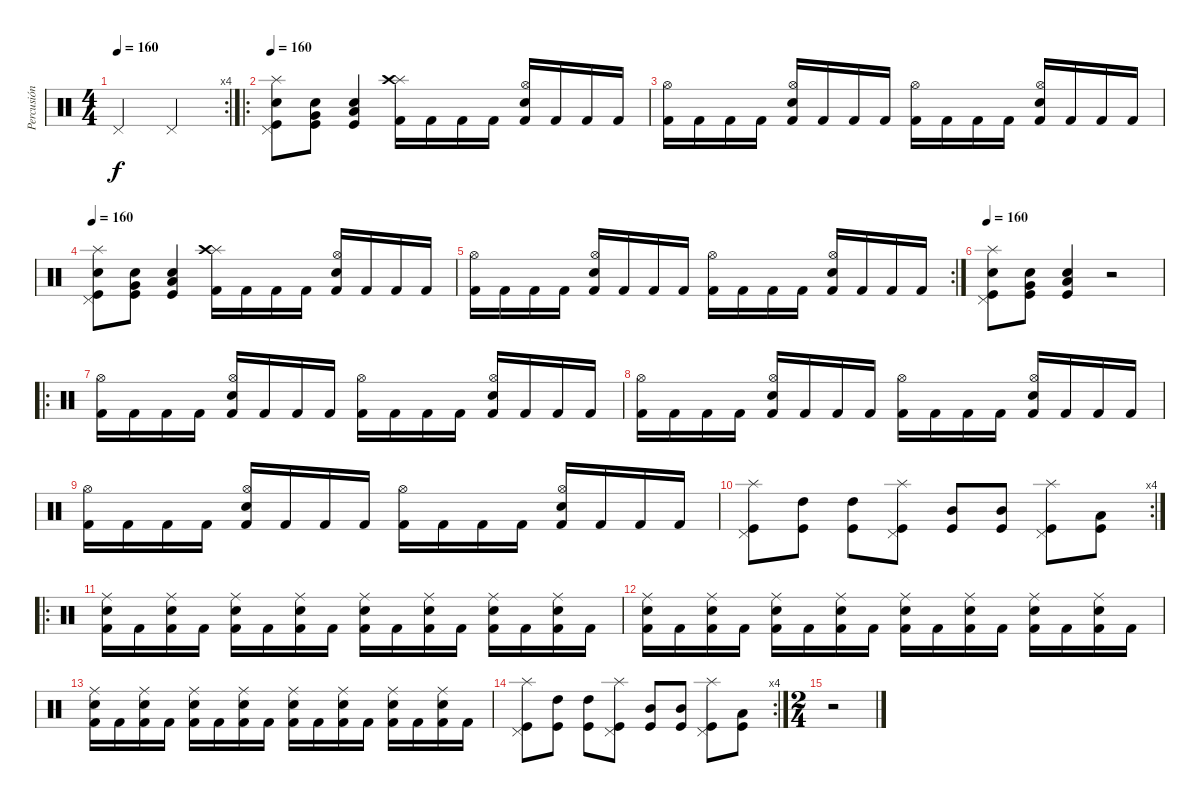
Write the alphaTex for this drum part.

\track ("Percusión" "Percusión") {instrument percussion}
\staff {score}
\articulation defaults
\rc 4
\ts (4 4)
\tempo 160
\clef neutral
\ks c "Pedal Hi-Hat (hit)".2{dy f} "Pedal Hi-Hat (hit)".2
|
\ro
\tempo 160
("Kick (hit)" "Pedal Hi-Hat (hit)" "Snare (hit) 2" "Splash (hit)").8 ("Kick (hit)" "Snare (hit) 2" "Very Low Tom (hit)").8 ("Kick (hit)" "Snare (hit) 2" "Low Tom (hit)").4 ("Splash (hit)" "Crash high (hit)" "Kick (hit) 2").16 "Kick (hit) 2".16 "Kick (hit) 2".16 "Kick (hit) 2".16 ("Hi-Hat (open)" "Electric Snare (hit)" "Kick (hit) 2").16 "Kick (hit) 2".16 "Kick (hit) 2".16 "Kick (hit) 2".16 |
("Hi-Hat (open)" "Kick (hit) 2").16 "Kick (hit) 2".16 "Kick (hit) 2".16 "Kick (hit) 2".16 ("Hi-Hat (open)" "Electric Snare (hit)" "Kick (hit) 2").16 "Kick (hit) 2".16 "Kick (hit) 2".16 "Kick (hit) 2".16 ("Hi-Hat (open)" "Kick (hit) 2").16 "Kick (hit) 2".16 "Kick (hit) 2".16 "Kick (hit) 2".16 ("Hi-Hat (open)" "Electric Snare (hit)" "Kick (hit) 2").16 "Kick (hit) 2".16 "Kick (hit) 2".16 "Kick (hit) 2".16 |
\tempo 160
("Kick (hit)" "Pedal Hi-Hat (hit)" "Snare (hit) 2" "Splash (hit)").8 ("Kick (hit)" "Snare (hit) 2" "Very Low Tom (hit)").8 ("Kick (hit)" "Snare (hit) 2" "Low Tom (hit)").4 ("Splash (hit)" "Crash high (hit)" "Kick (hit) 2").16 "Kick (hit) 2".16 "Kick (hit) 2".16 "Kick (hit) 2".16 ("Hi-Hat (open)" "Electric Snare (hit)" "Kick (hit) 2").16 "Kick (hit) 2".16 "Kick (hit) 2".16 "Kick (hit) 2".16 |
\rc 2
("Hi-Hat (open)" "Kick (hit) 2").16 "Kick (hit) 2".16 "Kick (hit) 2".16 "Kick (hit) 2".16 ("Hi-Hat (open)" "Electric Snare (hit)" "Kick (hit) 2").16 "Kick (hit) 2".16 "Kick (hit) 2".16 "Kick (hit) 2".16 ("Hi-Hat (open)" "Kick (hit) 2").16 "Kick (hit) 2".16 "Kick (hit) 2".16 "Kick (hit) 2".16 ("Hi-Hat (open)" "Electric Snare (hit)" "Kick (hit) 2").16 "Kick (hit) 2".16 "Kick (hit) 2".16 "Kick (hit) 2".16 |
\tempo 160
("Kick (hit)" "Pedal Hi-Hat (hit)" "Snare (hit) 2" "Splash (hit)").8 ("Kick (hit)" "Snare (hit) 2" "Very Low Tom (hit)").8 ("Kick (hit)" "Snare (hit) 2" "Low Tom (hit)").4 r.2 |
\ro
("Hi-Hat (open)" "Kick (hit) 2").16 "Kick (hit) 2".16 "Kick (hit) 2".16 "Kick (hit) 2".16 ("Hi-Hat (open)" "Electric Snare (hit)" "Kick (hit) 2").16 "Kick (hit) 2".16 "Kick (hit) 2".16 "Kick (hit) 2".16 ("Hi-Hat (open)" "Kick (hit) 2").16 "Kick (hit) 2".16 "Kick (hit) 2".16 "Kick (hit) 2".16 ("Hi-Hat (open)" "Electric Snare (hit)" "Kick (hit) 2").16 "Kick (hit) 2".16 "Kick (hit) 2".16 "Kick (hit) 2".16 |
("Hi-Hat (open)" "Kick (hit) 2").16 "Kick (hit) 2".16 "Kick (hit) 2".16 "Kick (hit) 2".16 ("Hi-Hat (open)" "Electric Snare (hit)" "Kick (hit) 2").16 "Kick (hit) 2".16 "Kick (hit) 2".16 "Kick (hit) 2".16 ("Hi-Hat (open)" "Kick (hit) 2").16 "Kick (hit) 2".16 "Kick (hit) 2".16 "Kick (hit) 2".16 ("Hi-Hat (open)" "Electric Snare (hit)" "Kick (hit) 2").16 "Kick (hit) 2".16 "Kick (hit) 2".16 "Kick (hit) 2".16 |
("Hi-Hat (open)" "Kick (hit) 2").16 "Kick (hit) 2".16 "Kick (hit) 2".16 "Kick (hit) 2".16 ("Hi-Hat (open)" "Electric Snare (hit)" "Kick (hit) 2").16 "Kick (hit) 2".16 "Kick (hit) 2".16 "Kick (hit) 2".16 ("Hi-Hat (open)" "Kick (hit) 2").16 "Kick (hit) 2".16 "Kick (hit) 2".16 "Kick (hit) 2".16 ("Hi-Hat (open)" "Electric Snare (hit)" "Kick (hit) 2").16 "Kick (hit) 2".16 "Kick (hit) 2".16 "Kick (hit) 2".16 |
\rc 4
("Splash (hit)" "Pedal Hi-Hat (hit)" "Kick (hit)").8 ("High Tom (hit)" "Kick (hit)").8 ("High Tom (hit)" "Kick (hit)").8 ("Splash (hit)" "Pedal Hi-Hat (hit)" "Kick (hit)").8 ("Mid Tom (hit)" "Kick (hit)").8 ("Mid Tom (hit)" "Kick (hit)").8 ("Splash (hit)" "Pedal Hi-Hat (hit)" "Kick (hit)").8 ("Low Tom (hit)" "Kick (hit)").8 |
\ro
("Kick (hit) 2" "Snare (hit) 2" "Ride (middle)").16 "Kick (hit) 2".16 ("Kick (hit) 2" "Snare (hit) 2" "Ride (middle)").16 "Kick (hit) 2".16 ("Kick (hit) 2" "Snare (hit) 2" "Ride (middle)").16 "Kick (hit) 2".16 ("Kick (hit) 2" "Snare (hit) 2" "Ride (middle)").16 "Kick (hit) 2".16 ("Kick (hit) 2" "Snare (hit) 2" "Ride (middle)").16 "Kick (hit) 2".16 ("Kick (hit) 2" "Snare (hit) 2" "Ride (middle)").16 "Kick (hit) 2".16 ("Kick (hit) 2" "Snare (hit) 2" "Ride (middle)").16 "Kick (hit) 2".16 ("Kick (hit) 2" "Snare (hit) 2" "Ride (middle)").16 "Kick (hit) 2".16 |
("Kick (hit) 2" "Snare (hit) 2" "Ride (middle)").16 "Kick (hit) 2".16 ("Kick (hit) 2" "Snare (hit) 2" "Ride (middle)").16 "Kick (hit) 2".16 ("Kick (hit) 2" "Snare (hit) 2" "Ride (middle)").16 "Kick (hit) 2".16 ("Kick (hit) 2" "Snare (hit) 2" "Ride (middle)").16 "Kick (hit) 2".16 ("Kick (hit) 2" "Snare (hit) 2" "Ride (middle)").16 "Kick (hit) 2".16 ("Kick (hit) 2" "Snare (hit) 2" "Ride (middle)").16 "Kick (hit) 2".16 ("Kick (hit) 2" "Snare (hit) 2" "Ride (middle)").16 "Kick (hit) 2".16 ("Kick (hit) 2" "Snare (hit) 2" "Ride (middle)").16 "Kick (hit) 2".16 |
("Kick (hit) 2" "Snare (hit) 2" "Ride (middle)").16 "Kick (hit) 2".16 ("Kick (hit) 2" "Snare (hit) 2" "Ride (middle)").16 "Kick (hit) 2".16 ("Kick (hit) 2" "Snare (hit) 2" "Ride (middle)").16 "Kick (hit) 2".16 ("Kick (hit) 2" "Snare (hit) 2" "Ride (middle)").16 "Kick (hit) 2".16 ("Kick (hit) 2" "Snare (hit) 2" "Ride (middle)").16 "Kick (hit) 2".16 ("Kick (hit) 2" "Snare (hit) 2" "Ride (middle)").16 "Kick (hit) 2".16 ("Kick (hit) 2" "Snare (hit) 2" "Ride (middle)").16 "Kick (hit) 2".16 ("Kick (hit) 2" "Snare (hit) 2" "Ride (middle)").16 "Kick (hit) 2".16 |
\rc 4
("Splash (hit)" "Pedal Hi-Hat (hit)" "Kick (hit)").8 ("High Tom (hit)" "Kick (hit)").8 ("High Tom (hit)" "Kick (hit)").8 ("Splash (hit)" "Pedal Hi-Hat (hit)" "Kick (hit)").8 ("Mid Tom (hit)" "Kick (hit)").8 ("Mid Tom (hit)" "Kick (hit)").8 ("Splash (hit)" "Pedal Hi-Hat (hit)" "Kick (hit)").8 ("Low Tom (hit)" "Kick (hit)").8 |
\ts (2 4)
r.2
